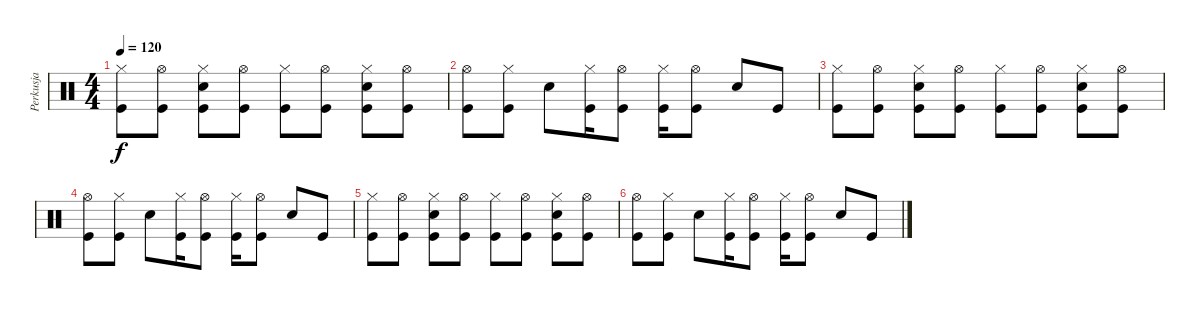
\track ("Perkusja" "Perkusja") {instrument percussion}
\staff {score}
\articulation defaults
\ts (4 4)
\tempo 120
\clef neutral
\ks c
("Hi-Hat (closed)" "Kick (hit)").8{dy f} ("Hi-Hat (open)" "Kick (hit)").8 ("Hi-Hat (closed)" "Snare (hit) 2" "Kick (hit)").8 ("Hi-Hat (open)" "Kick (hit)").8 ("Hi-Hat (closed)" "Kick (hit)").8 ("Hi-Hat (open)" "Kick (hit)").8 ("Hi-Hat (closed)" "Snare (hit) 2" "Kick (hit)").8 ("Hi-Hat (open)" "Kick (hit)").8 |
("Hi-Hat (open)" "Kick (hit)").8 ("Hi-Hat (closed)" "Kick (hit)").8 "Snare (hit) 2".8 ("Hi-Hat (closed)" "Kick (hit)").16 ("Hi-Hat (open)" "Kick (hit)").8 ("Hi-Hat (closed)" "Kick (hit)").16 ("Hi-Hat (open)" "Kick (hit)").8 "Snare (hit) 2".8 "Kick (hit)".8 |
("Hi-Hat (closed)" "Kick (hit)").8 ("Hi-Hat (open)" "Kick (hit)").8 ("Hi-Hat (closed)" "Snare (hit) 2" "Kick (hit)").8 ("Hi-Hat (open)" "Kick (hit)").8 ("Hi-Hat (closed)" "Kick (hit)").8 ("Hi-Hat (open)" "Kick (hit)").8 ("Hi-Hat (closed)" "Snare (hit) 2" "Kick (hit)").8 ("Hi-Hat (open)" "Kick (hit)").8 |
("Hi-Hat (open)" "Kick (hit)").8 ("Hi-Hat (closed)" "Kick (hit)").8 "Snare (hit) 2".8 ("Hi-Hat (closed)" "Kick (hit)").16 ("Hi-Hat (open)" "Kick (hit)").8 ("Hi-Hat (closed)" "Kick (hit)").16 ("Hi-Hat (open)" "Kick (hit)").8 "Snare (hit) 2".8 "Kick (hit)".8 |
("Hi-Hat (closed)" "Kick (hit)").8 ("Hi-Hat (open)" "Kick (hit)").8 ("Hi-Hat (closed)" "Snare (hit) 2" "Kick (hit)").8 ("Hi-Hat (open)" "Kick (hit)").8 ("Hi-Hat (closed)" "Kick (hit)").8 ("Hi-Hat (open)" "Kick (hit)").8 ("Hi-Hat (closed)" "Snare (hit) 2" "Kick (hit)").8 ("Hi-Hat (open)" "Kick (hit)").8 |
("Hi-Hat (open)" "Kick (hit)").8 ("Hi-Hat (closed)" "Kick (hit)").8 "Snare (hit) 2".8 ("Hi-Hat (closed)" "Kick (hit)").16 ("Hi-Hat (open)" "Kick (hit)").8 ("Hi-Hat (closed)" "Kick (hit)").16 ("Hi-Hat (open)" "Kick (hit)").8 "Snare (hit) 2".8 "Kick (hit)".8
